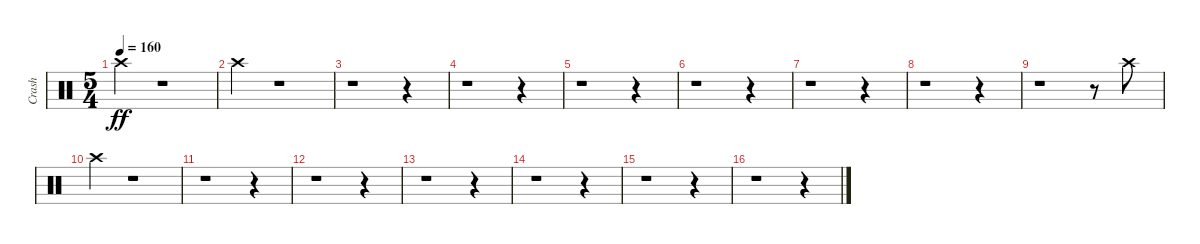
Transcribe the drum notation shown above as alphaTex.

\track ("Crash" "Crash") {instrument percussion}
\staff {score}
\articulation defaults
\ts (5 4)
\tempo 160
\clef neutral
\ks c "Crash high (hit)".4{dy ff}
r.1 |
"Crash high (hit)".4 r.1 |
r.1 r.4 |
r.1 r.4 |
r.1 r.4 |
r.1 r.4 |
r.1 r.4 |
r.1 r.4 |
r.1 r.8 "Crash high (hit)".8 |
"Crash high (hit)".4 r.1 |
r.1 r.4 |
r.1 r.4 |
r.1 r.4 |
r.1 r.4 |
r.1 r.4 |
r.1 r.4
